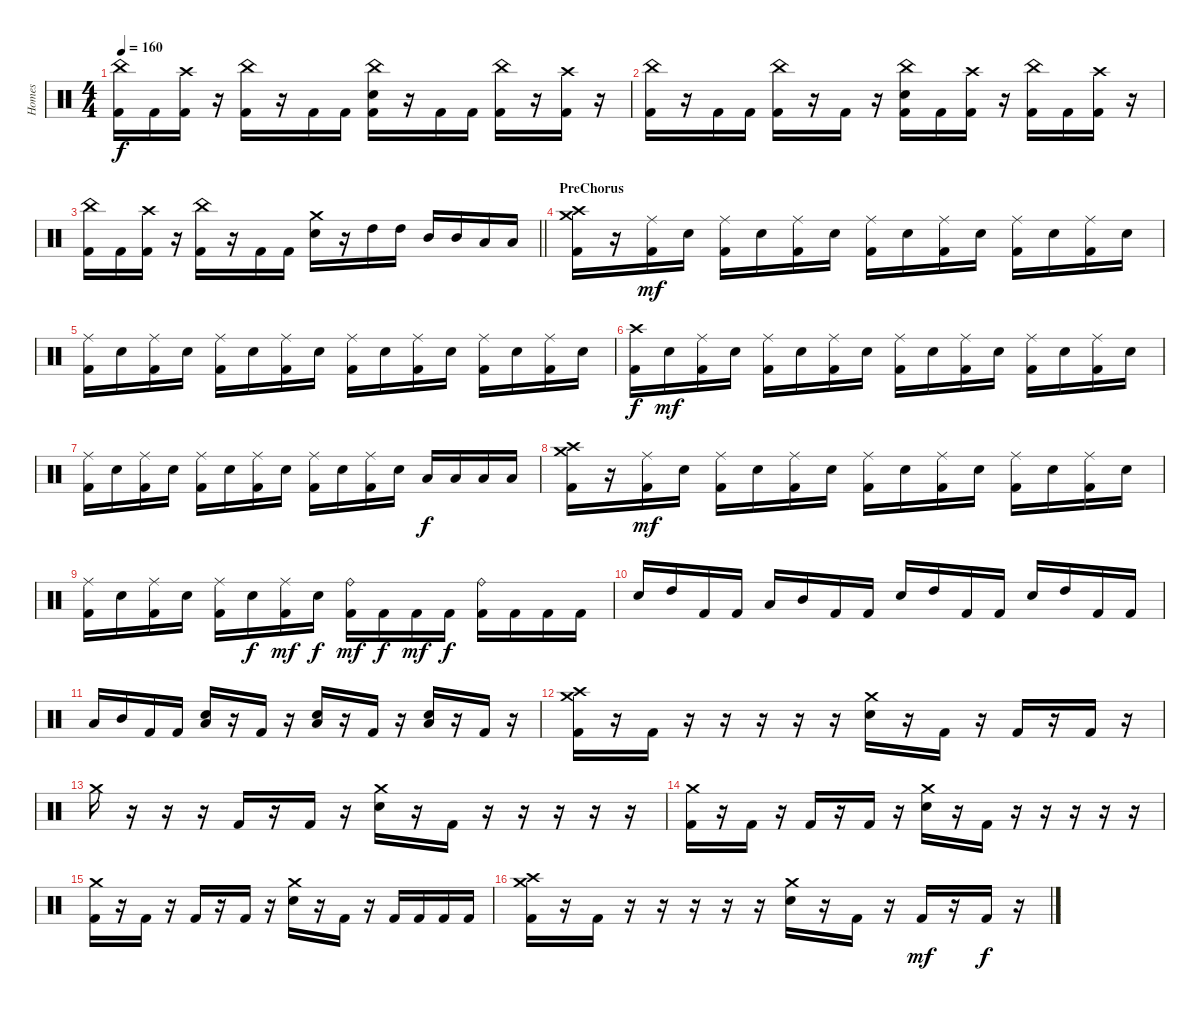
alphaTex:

\track ("Homes" "Homes") {instrument percussion}
\staff {score}
\articulation defaults
\ts (4 4)
\tempo 160
\clef neutral
\ks c
("China (hit)" "Kick (hit) 2").16{dy f} "Kick (hit) 2".16 ("Crash high (hit)" "Kick (hit) 2").16 r.16 ("China (hit)" "Kick (hit) 2").16 r.16 "Kick (hit) 2".16 "Kick (hit) 2".16 ("China (hit)" "Electric Snare (hit)" "Kick (hit) 2").16 r.16 "Kick (hit) 2".16 "Kick (hit) 2".16 ("China (hit)" "Kick (hit) 2").16 r.16 ("Crash high (hit)" "Kick (hit) 2").16 r.16 |
("China (hit)" "Kick (hit) 2").16 r.16 "Kick (hit) 2".16 "Kick (hit) 2".16 ("China (hit)" "Kick (hit) 2").16 r.16 "Kick (hit) 2".16 r.16 ("China (hit)" "Electric Snare (hit)" "Kick (hit) 2").16 "Kick (hit) 2".16 ("Crash high (hit)" "Kick (hit) 2").16 r.16 ("China (hit)" "Kick (hit) 2").16 "Kick (hit) 2".16 ("Crash high (hit)" "Kick (hit) 2").16 r.16 |
\barLineRight lightlight
("China (hit)" "Kick (hit) 2").16 "Kick (hit) 2".16 ("Crash high (hit)" "Kick (hit) 2").16 r.16 ("China (hit)" "Kick (hit) 2").16 r.16 "Kick (hit) 2".16 "Kick (hit) 2".16 ("Crash medium (hit)" "Electric Snare (hit)").16 r.16 "High Tom (hit)".16 "High Tom (hit)".16 "Mid Tom (hit)".16 "Mid Tom (hit)".16 "Low Tom (hit)".16 "Low Tom (hit)".16 |
\section ("" "PreChorus")
("Crash high (hit)" "Crash medium (hit)" "Kick (hit) 2").16 r.16 ("Ride (middle)" "Kick (hit) 2").16{dy mf} "Electric Snare (hit)".16 ("Ride (middle)" "Kick (hit) 2").16 "Electric Snare (hit)".16 ("Ride (middle)" "Kick (hit) 2").16 "Electric Snare (hit)".16 ("Ride (middle)" "Kick (hit) 2").16 "Electric Snare (hit)".16 ("Ride (middle)" "Kick (hit) 2").16 "Electric Snare (hit)".16 ("Ride (middle)" "Kick (hit) 2").16 "Electric Snare (hit)".16 ("Ride (middle)" "Kick (hit) 2").16 "Electric Snare (hit)".16 |
("Ride (middle)" "Kick (hit) 2").16 "Electric Snare (hit)".16 ("Ride (middle)" "Kick (hit) 2").16 "Electric Snare (hit)".16 ("Ride (middle)" "Kick (hit) 2").16 "Electric Snare (hit)".16 ("Ride (middle)" "Kick (hit) 2").16 "Electric Snare (hit)".16 ("Ride (middle)" "Kick (hit) 2").16 "Electric Snare (hit)".16 ("Ride (middle)" "Kick (hit) 2").16 "Electric Snare (hit)".16 ("Ride (middle)" "Kick (hit) 2").16 "Electric Snare (hit)".16 ("Ride (middle)" "Kick (hit) 2").16 "Electric Snare (hit)".16 |
("Crash high (hit)" "Kick (hit) 2").16{dy f} "Electric Snare (hit)".16{dy mf} ("Ride (middle)" "Kick (hit) 2").16 "Electric Snare (hit)".16 ("Ride (middle)" "Kick (hit) 2").16 "Electric Snare (hit)".16 ("Ride (middle)" "Kick (hit) 2").16 "Electric Snare (hit)".16 ("Ride (middle)" "Kick (hit) 2").16 "Electric Snare (hit)".16 ("Ride (middle)" "Kick (hit) 2").16 "Electric Snare (hit)".16 ("Ride (middle)" "Kick (hit) 2").16 "Electric Snare (hit)".16 ("Ride (middle)" "Kick (hit) 2").16 "Electric Snare (hit)".16 |
("Ride (middle)" "Kick (hit) 2").16 "Electric Snare (hit)".16 ("Ride (middle)" "Kick (hit) 2").16 "Electric Snare (hit)".16 ("Ride (middle)" "Kick (hit) 2").16 "Electric Snare (hit)".16 ("Ride (middle)" "Kick (hit) 2").16 "Electric Snare (hit)".16 ("Ride (middle)" "Kick (hit) 2").16 "Electric Snare (hit)".16 ("Ride (middle)" "Kick (hit) 2").16 "Electric Snare (hit)".16 "Low Tom (hit)".16{dy f} "Low Tom (hit)".16 "Low Tom (hit)".16 "Low Tom (hit)".16 |
("Crash high (hit)" "Crash medium (hit)" "Kick (hit) 2").16 r.16 ("Ride (middle)" "Kick (hit) 2").16{dy mf} "Electric Snare (hit)".16 ("Ride (middle)" "Kick (hit) 2").16 "Electric Snare (hit)".16 ("Ride (middle)" "Kick (hit) 2").16 "Electric Snare (hit)".16 ("Ride (middle)" "Kick (hit) 2").16 "Electric Snare (hit)".16 ("Ride (middle)" "Kick (hit) 2").16 "Electric Snare (hit)".16 ("Ride (middle)" "Kick (hit) 2").16 "Electric Snare (hit)".16 ("Ride (middle)" "Kick (hit) 2").16 "Electric Snare (hit)".16 |
("Ride (middle)" "Kick (hit) 2").16 "Electric Snare (hit)".16 ("Ride (middle)" "Kick (hit) 2").16 "Electric Snare (hit)".16 ("Ride (middle)" "Kick (hit) 2").16 "Electric Snare (hit)".16{dy f} ("Ride (middle)" "Kick (hit) 2").16{dy mf} "Electric Snare (hit)".16{dy f} ("Ride (bell)" "Kick (hit) 2").16{dy mf} "Kick (hit) 2".16{dy f} "Kick (hit) 2".16{dy mf} "Kick (hit) 2".16{dy f} ("Ride (bell)" "Kick (hit) 2").16 "Kick (hit) 2".16 "Kick (hit) 2".16 "Kick (hit) 2".16 |
"Electric Snare (hit)".16 "High Tom (hit)".16 "Kick (hit) 2".16 "Kick (hit) 2".16 "Low Tom (hit)".16 "Mid Tom (hit)".16 "Kick (hit) 2".16 "Kick (hit) 2".16 "Electric Snare (hit)".16 "High Tom (hit)".16 "Kick (hit) 2".16 "Kick (hit) 2".16 "Electric Snare (hit)".16 "High Tom (hit)".16 "Kick (hit) 2".16 "Kick (hit) 2".16 |
"Low Tom (hit)".16 "Mid Tom (hit)".16 "Kick (hit) 2".16 "Kick (hit) 2".16 ("Electric Snare (hit)" "Low Tom (hit)").16 r.16 "Kick (hit) 2".16 r.16 ("Electric Snare (hit)" "Low Tom (hit)").16 r.16 "Kick (hit) 2".16 r.16 ("Electric Snare (hit)" "Low Tom (hit)").16 r.16 "Kick (hit) 2".16 r.16 |
("Crash medium (hit)" "Crash high (hit)" "Kick (hit) 2").16 r.16 "Kick (hit) 2".16 r.16 r.16 r.16 r.16 r.16 ("Crash medium (hit)" "Electric Snare (hit)").16 r.16 "Kick (hit) 2".16 r.16 "Kick (hit) 2".16 r.16 "Kick (hit) 2".16 r.16 |
"Crash medium (hit)".16 r.16 r.16 r.16 "Kick (hit) 2".16 r.16 "Kick (hit) 2".16 r.16 ("Crash medium (hit)" "Electric Snare (hit)").16 r.16 "Kick (hit) 2".16 r.16 r.16 r.16 r.16 r.16 |
("Crash medium (hit)" "Kick (hit) 2").16 r.16 "Kick (hit) 2".16 r.16 "Kick (hit) 2".16 r.16 "Kick (hit) 2".16 r.16 ("Crash medium (hit)" "Electric Snare (hit)").16 r.16 "Kick (hit) 2".16 r.16 r.16 r.16 r.16 r.16 |
("Crash medium (hit)" "Kick (hit) 2").16 r.16 "Kick (hit) 2".16 r.16 "Kick (hit) 2".16 r.16 "Kick (hit) 2".16 r.16 ("Crash medium (hit)" "Electric Snare (hit)").16 r.16 "Kick (hit) 2".16 r.16 "Kick (hit) 2".16 "Kick (hit) 2".16 "Kick (hit) 2".16 "Kick (hit) 2".16 |
("Crash medium (hit)" "Crash high (hit)" "Kick (hit) 2").16 r.16 "Kick (hit) 2".16 r.16 r.16 r.16 r.16 r.16 ("Crash medium (hit)" "Electric Snare (hit)").16 r.16 "Kick (hit) 2".16 r.16 "Kick (hit) 2".16{dy mf} r.16 "Kick (hit) 2".16{dy f} r.16
